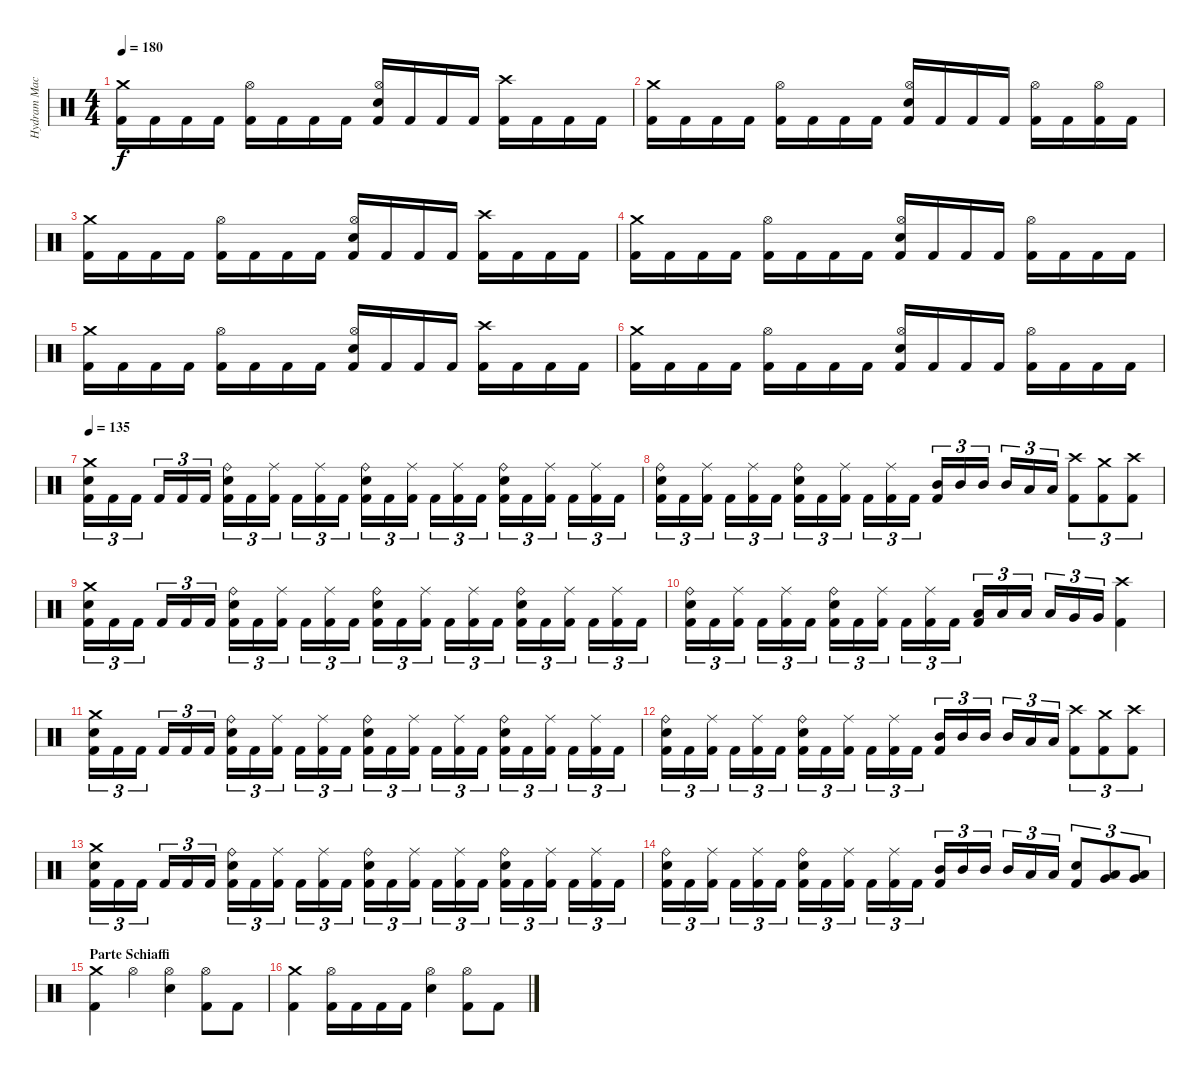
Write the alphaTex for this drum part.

\track ("Hydram Machine" "Hydram Mac") {instrument percussion}
\staff {score}
\articulation defaults
\ts (4 4)
\tempo 180
\clef neutral
\ks c
("Crash medium (hit)" "Kick (hit) 2").16{dy f} "Kick (hit) 2".16 "Kick (hit) 2".16 "Kick (hit) 2".16 ("Hi-Hat (open)" "Kick (hit) 2").16 "Kick (hit) 2".16 "Kick (hit) 2".16 "Kick (hit) 2".16 ("Hi-Hat (open)" "Electric Snare (hit)" "Kick (hit) 2").16 "Kick (hit) 2".16 "Kick (hit) 2".16 "Kick (hit) 2".16 ("Crash high (hit)" "Kick (hit) 2").16 "Kick (hit) 2".16 "Kick (hit) 2".16 "Kick (hit) 2".16 |
("Crash medium (hit)" "Kick (hit) 2").16 "Kick (hit) 2".16 "Kick (hit) 2".16 "Kick (hit) 2".16 ("Hi-Hat (open)" "Kick (hit) 2").16 "Kick (hit) 2".16 "Kick (hit) 2".16 "Kick (hit) 2".16 ("Hi-Hat (open)" "Electric Snare (hit)" "Kick (hit) 2").16 "Kick (hit) 2".16 "Kick (hit) 2".16 "Kick (hit) 2".16 ("Hi-Hat (open)" "Kick (hit) 2").16 "Kick (hit) 2".16 ("Hi-Hat (open)" "Kick (hit) 2").16 "Kick (hit) 2".16 |
("Crash medium (hit)" "Kick (hit) 2").16 "Kick (hit) 2".16 "Kick (hit) 2".16 "Kick (hit) 2".16 ("Hi-Hat (open)" "Kick (hit) 2").16 "Kick (hit) 2".16 "Kick (hit) 2".16 "Kick (hit) 2".16 ("Hi-Hat (open)" "Electric Snare (hit)" "Kick (hit) 2").16 "Kick (hit) 2".16 "Kick (hit) 2".16 "Kick (hit) 2".16 ("Crash high (hit)" "Kick (hit) 2").16 "Kick (hit) 2".16 "Kick (hit) 2".16 "Kick (hit) 2".16 |
("Crash medium (hit)" "Kick (hit) 2").16 "Kick (hit) 2".16 "Kick (hit) 2".16 "Kick (hit) 2".16 ("Hi-Hat (open)" "Kick (hit) 2").16 "Kick (hit) 2".16 "Kick (hit) 2".16 "Kick (hit) 2".16 ("Hi-Hat (open)" "Electric Snare (hit)" "Kick (hit) 2").16 "Kick (hit) 2".16 "Kick (hit) 2".16 "Kick (hit) 2".16 ("Hi-Hat (open)" "Kick (hit) 2").16 "Kick (hit) 2".16 "Kick (hit) 2".16 "Kick (hit) 2".16 |
("Crash medium (hit)" "Kick (hit) 2").16 "Kick (hit) 2".16 "Kick (hit) 2".16 "Kick (hit) 2".16 ("Hi-Hat (open)" "Kick (hit) 2").16 "Kick (hit) 2".16 "Kick (hit) 2".16 "Kick (hit) 2".16 ("Hi-Hat (open)" "Electric Snare (hit)" "Kick (hit) 2").16 "Kick (hit) 2".16 "Kick (hit) 2".16 "Kick (hit) 2".16 ("Crash high (hit)" "Kick (hit) 2").16 "Kick (hit) 2".16 "Kick (hit) 2".16 "Kick (hit) 2".16 |
("Crash medium (hit)" "Kick (hit) 2").16 "Kick (hit) 2".16 "Kick (hit) 2".16 "Kick (hit) 2".16 ("Hi-Hat (open)" "Kick (hit) 2").16 "Kick (hit) 2".16 "Kick (hit) 2".16 "Kick (hit) 2".16 ("Hi-Hat (open)" "Electric Snare (hit)" "Kick (hit) 2").16 "Kick (hit) 2".16 "Kick (hit) 2".16 "Kick (hit) 2".16 ("Hi-Hat (open)" "Kick (hit) 2").16 "Kick (hit) 2".16 "Kick (hit) 2".16 "Kick (hit) 2".16 |
\tempo 135
("Crash medium (hit)" "Electric Snare (hit)" "Kick (hit) 2").16{tu (3 2)} "Kick (hit) 2".16{tu (3 2)} "Kick (hit) 2".16{tu (3 2) beam splitsecondary} "Kick (hit) 2".16{tu (3 2)} "Kick (hit) 2".16{tu (3 2)} "Kick (hit) 2".16{tu (3 2)} ("Ride (bell)" "Electric Snare (hit)" "Kick (hit) 2").16{tu (3 2)} "Kick (hit) 2".16{tu (3 2)} ("Ride (middle)" "Kick (hit) 2").16{tu (3 2) beam splitsecondary} "Kick (hit) 2".16{tu (3 2)} ("Ride (middle)" "Kick (hit) 2").16{tu (3 2)} "Kick (hit) 2".16{tu (3 2)} ("Ride (bell)" "Electric Snare (hit)" "Kick (hit) 2").16{tu (3 2)} "Kick (hit) 2".16{tu (3 2)} ("Ride (middle)" "Kick (hit) 2").16{tu (3 2) beam splitsecondary} "Kick (hit) 2".16{tu (3 2)} ("Ride (middle)" "Kick (hit) 2").16{tu (3 2)} "Kick (hit) 2".16{tu (3 2)} ("Ride (bell)" "Electric Snare (hit)" "Kick (hit) 2").16{tu (3 2)} "Kick (hit) 2".16{tu (3 2)} ("Ride (middle)" "Kick (hit) 2").16{tu (3 2) beam splitsecondary} "Kick (hit) 2".16{tu (3 2)} ("Ride (middle)" "Kick (hit) 2").16{tu (3 2)} "Kick (hit) 2".16{tu (3 2)} |
("Ride (bell)" "Electric Snare (hit)" "Kick (hit) 2").16{tu (3 2)} "Kick (hit) 2".16{tu (3 2)} ("Ride (middle)" "Kick (hit) 2").16{tu (3 2) beam splitsecondary} "Kick (hit) 2".16{tu (3 2)} ("Ride (middle)" "Kick (hit) 2").16{tu (3 2)} "Kick (hit) 2".16{tu (3 2)} ("Ride (bell)" "Electric Snare (hit)" "Kick (hit) 2").16{tu (3 2)} "Kick (hit) 2".16{tu (3 2)} ("Ride (middle)" "Kick (hit) 2").16{tu (3 2) beam splitsecondary} "Kick (hit) 2".16{tu (3 2)} ("Ride (middle)" "Kick (hit) 2").16{tu (3 2)} "Kick (hit) 2".16{tu (3 2)} ("Mid Tom (hit)" "Kick (hit) 2").16{tu (3 2)} "Mid Tom (hit)".16{tu (3 2)} "Mid Tom (hit)".16{tu (3 2) beam splitsecondary} "Mid Tom (hit)".16{tu (3 2)} "Low Tom (hit)".16{tu (3 2)} "Low Tom (hit)".16{tu (3 2)} ("Crash high (hit)" "Kick (hit) 2").8{tu (3 2)} ("Crash medium (hit)" "Kick (hit) 2").8{tu (3 2)} ("Crash high (hit)" "Kick (hit) 2").8{tu (3 2)} |
("Crash medium (hit)" "Electric Snare (hit)" "Kick (hit) 2").16{tu (3 2)} "Kick (hit) 2".16{tu (3 2)} "Kick (hit) 2".16{tu (3 2) beam splitsecondary} "Kick (hit) 2".16{tu (3 2)} "Kick (hit) 2".16{tu (3 2)} "Kick (hit) 2".16{tu (3 2)} ("Ride (bell)" "Electric Snare (hit)" "Kick (hit) 2").16{tu (3 2)} "Kick (hit) 2".16{tu (3 2)} ("Ride (middle)" "Kick (hit) 2").16{tu (3 2) beam splitsecondary} "Kick (hit) 2".16{tu (3 2)} ("Ride (middle)" "Kick (hit) 2").16{tu (3 2)} "Kick (hit) 2".16{tu (3 2)} ("Ride (bell)" "Electric Snare (hit)" "Kick (hit) 2").16{tu (3 2)} "Kick (hit) 2".16{tu (3 2)} ("Ride (middle)" "Kick (hit) 2").16{tu (3 2) beam splitsecondary} "Kick (hit) 2".16{tu (3 2)} ("Ride (middle)" "Kick (hit) 2").16{tu (3 2)} "Kick (hit) 2".16{tu (3 2)} ("Ride (bell)" "Electric Snare (hit)" "Kick (hit) 2").16{tu (3 2)} "Kick (hit) 2".16{tu (3 2)} ("Ride (middle)" "Kick (hit) 2").16{tu (3 2) beam splitsecondary} "Kick (hit) 2".16{tu (3 2)} ("Ride (middle)" "Kick (hit) 2").16{tu (3 2)} "Kick (hit) 2".16{tu (3 2)} |
("Ride (bell)" "Electric Snare (hit)" "Kick (hit) 2").16{tu (3 2)} "Kick (hit) 2".16{tu (3 2)} ("Ride (middle)" "Kick (hit) 2").16{tu (3 2) beam splitsecondary} "Kick (hit) 2".16{tu (3 2)} ("Ride (middle)" "Kick (hit) 2").16{tu (3 2)} "Kick (hit) 2".16{tu (3 2)} ("Ride (bell)" "Electric Snare (hit)" "Kick (hit) 2").16{tu (3 2)} "Kick (hit) 2".16{tu (3 2)} ("Ride (middle)" "Kick (hit) 2").16{tu (3 2) beam splitsecondary} "Kick (hit) 2".16{tu (3 2)} ("Ride (middle)" "Kick (hit) 2").16{tu (3 2)} "Kick (hit) 2".16{tu (3 2)} ("Low Tom (hit)" "Kick (hit) 2").16{tu (3 2)} "Low Tom (hit)".16{tu (3 2)} "Low Tom (hit)".16{tu (3 2) beam splitsecondary} "Low Tom (hit)".16{tu (3 2)} "Very Low Tom (hit)".16{tu (3 2)} "Very Low Tom (hit)".16{tu (3 2)} ("Crash high (hit)" "Kick (hit) 2").4 |
("Crash medium (hit)" "Electric Snare (hit)" "Kick (hit) 2").16{tu (3 2)} "Kick (hit) 2".16{tu (3 2)} "Kick (hit) 2".16{tu (3 2) beam splitsecondary} "Kick (hit) 2".16{tu (3 2)} "Kick (hit) 2".16{tu (3 2)} "Kick (hit) 2".16{tu (3 2)} ("Ride (bell)" "Electric Snare (hit)" "Kick (hit) 2").16{tu (3 2)} "Kick (hit) 2".16{tu (3 2)} ("Ride (middle)" "Kick (hit) 2").16{tu (3 2) beam splitsecondary} "Kick (hit) 2".16{tu (3 2)} ("Ride (middle)" "Kick (hit) 2").16{tu (3 2)} "Kick (hit) 2".16{tu (3 2)} ("Ride (bell)" "Electric Snare (hit)" "Kick (hit) 2").16{tu (3 2)} "Kick (hit) 2".16{tu (3 2)} ("Ride (middle)" "Kick (hit) 2").16{tu (3 2) beam splitsecondary} "Kick (hit) 2".16{tu (3 2)} ("Ride (middle)" "Kick (hit) 2").16{tu (3 2)} "Kick (hit) 2".16{tu (3 2)} ("Ride (bell)" "Electric Snare (hit)" "Kick (hit) 2").16{tu (3 2)} "Kick (hit) 2".16{tu (3 2)} ("Ride (middle)" "Kick (hit) 2").16{tu (3 2) beam splitsecondary} "Kick (hit) 2".16{tu (3 2)} ("Ride (middle)" "Kick (hit) 2").16{tu (3 2)} "Kick (hit) 2".16{tu (3 2)} |
("Ride (bell)" "Electric Snare (hit)" "Kick (hit) 2").16{tu (3 2)} "Kick (hit) 2".16{tu (3 2)} ("Ride (middle)" "Kick (hit) 2").16{tu (3 2) beam splitsecondary} "Kick (hit) 2".16{tu (3 2)} ("Ride (middle)" "Kick (hit) 2").16{tu (3 2)} "Kick (hit) 2".16{tu (3 2)} ("Ride (bell)" "Electric Snare (hit)" "Kick (hit) 2").16{tu (3 2)} "Kick (hit) 2".16{tu (3 2)} ("Ride (middle)" "Kick (hit) 2").16{tu (3 2) beam splitsecondary} "Kick (hit) 2".16{tu (3 2)} ("Ride (middle)" "Kick (hit) 2").16{tu (3 2)} "Kick (hit) 2".16{tu (3 2)} ("Mid Tom (hit)" "Kick (hit) 2").16{tu (3 2)} "Mid Tom (hit)".16{tu (3 2)} "Mid Tom (hit)".16{tu (3 2) beam splitsecondary} "Mid Tom (hit)".16{tu (3 2)} "Low Tom (hit)".16{tu (3 2)} "Low Tom (hit)".16{tu (3 2)} ("Crash high (hit)" "Kick (hit) 2").8{tu (3 2)} ("Crash medium (hit)" "Kick (hit) 2").8{tu (3 2)} ("Crash high (hit)" "Kick (hit) 2").8{tu (3 2)} |
("Crash medium (hit)" "Electric Snare (hit)" "Kick (hit) 2").16{tu (3 2)} "Kick (hit) 2".16{tu (3 2)} "Kick (hit) 2".16{tu (3 2) beam splitsecondary} "Kick (hit) 2".16{tu (3 2)} "Kick (hit) 2".16{tu (3 2)} "Kick (hit) 2".16{tu (3 2)} ("Ride (bell)" "Electric Snare (hit)" "Kick (hit) 2").16{tu (3 2)} "Kick (hit) 2".16{tu (3 2)} ("Ride (middle)" "Kick (hit) 2").16{tu (3 2) beam splitsecondary} "Kick (hit) 2".16{tu (3 2)} ("Ride (middle)" "Kick (hit) 2").16{tu (3 2)} "Kick (hit) 2".16{tu (3 2)} ("Ride (bell)" "Electric Snare (hit)" "Kick (hit) 2").16{tu (3 2)} "Kick (hit) 2".16{tu (3 2)} ("Ride (middle)" "Kick (hit) 2").16{tu (3 2) beam splitsecondary} "Kick (hit) 2".16{tu (3 2)} ("Ride (middle)" "Kick (hit) 2").16{tu (3 2)} "Kick (hit) 2".16{tu (3 2)} ("Ride (bell)" "Electric Snare (hit)" "Kick (hit) 2").16{tu (3 2)} "Kick (hit) 2".16{tu (3 2)} ("Ride (middle)" "Kick (hit) 2").16{tu (3 2) beam splitsecondary} "Kick (hit) 2".16{tu (3 2)} ("Ride (middle)" "Kick (hit) 2").16{tu (3 2)} "Kick (hit) 2".16{tu (3 2)} |
("Ride (bell)" "Electric Snare (hit)" "Kick (hit) 2").16{tu (3 2)} "Kick (hit) 2".16{tu (3 2)} ("Ride (middle)" "Kick (hit) 2").16{tu (3 2) beam splitsecondary} "Kick (hit) 2".16{tu (3 2)} ("Ride (middle)" "Kick (hit) 2").16{tu (3 2)} "Kick (hit) 2".16{tu (3 2)} ("Ride (bell)" "Electric Snare (hit)" "Kick (hit) 2").16{tu (3 2)} "Kick (hit) 2".16{tu (3 2)} ("Ride (middle)" "Kick (hit) 2").16{tu (3 2) beam splitsecondary} "Kick (hit) 2".16{tu (3 2)} ("Ride (middle)" "Kick (hit) 2").16{tu (3 2)} "Kick (hit) 2".16{tu (3 2)} ("Mid Tom (hit)" "Kick (hit) 2").16{tu (3 2)} "Mid Tom (hit)".16{tu (3 2)} "Mid Tom (hit)".16{tu (3 2) beam splitsecondary} "Mid Tom (hit)".16{tu (3 2)} "Low Tom (hit)".16{tu (3 2)} "Low Tom (hit)".16{tu (3 2)} ("Electric Snare (hit)" "Kick (hit) 2").8{tu (3 2)} ("Low Tom (hit)" "Very Low Tom (hit)").8{tu (3 2)} ("Very Low Tom (hit)" "Low Floor Tom (hit)").8{tu (3 2)} |
\section ("" "Parte Schiaffi")
("Crash medium (hit)" "Kick (hit) 2").4 "Hi-Hat (open)".4 ("Hi-Hat (open)" "Electric Snare (hit)").4 ("Hi-Hat (open)" "Kick (hit) 2").8 "Kick (hit) 2".8 |
("Crash medium (hit)" "Kick (hit) 2").4 ("Hi-Hat (open)" "Kick (hit) 2").16 "Kick (hit) 2".16 "Kick (hit) 2".16 "Kick (hit) 2".16 ("Hi-Hat (open)" "Electric Snare (hit)").4 ("Hi-Hat (open)" "Kick (hit) 2").8 "Kick (hit) 2".8
